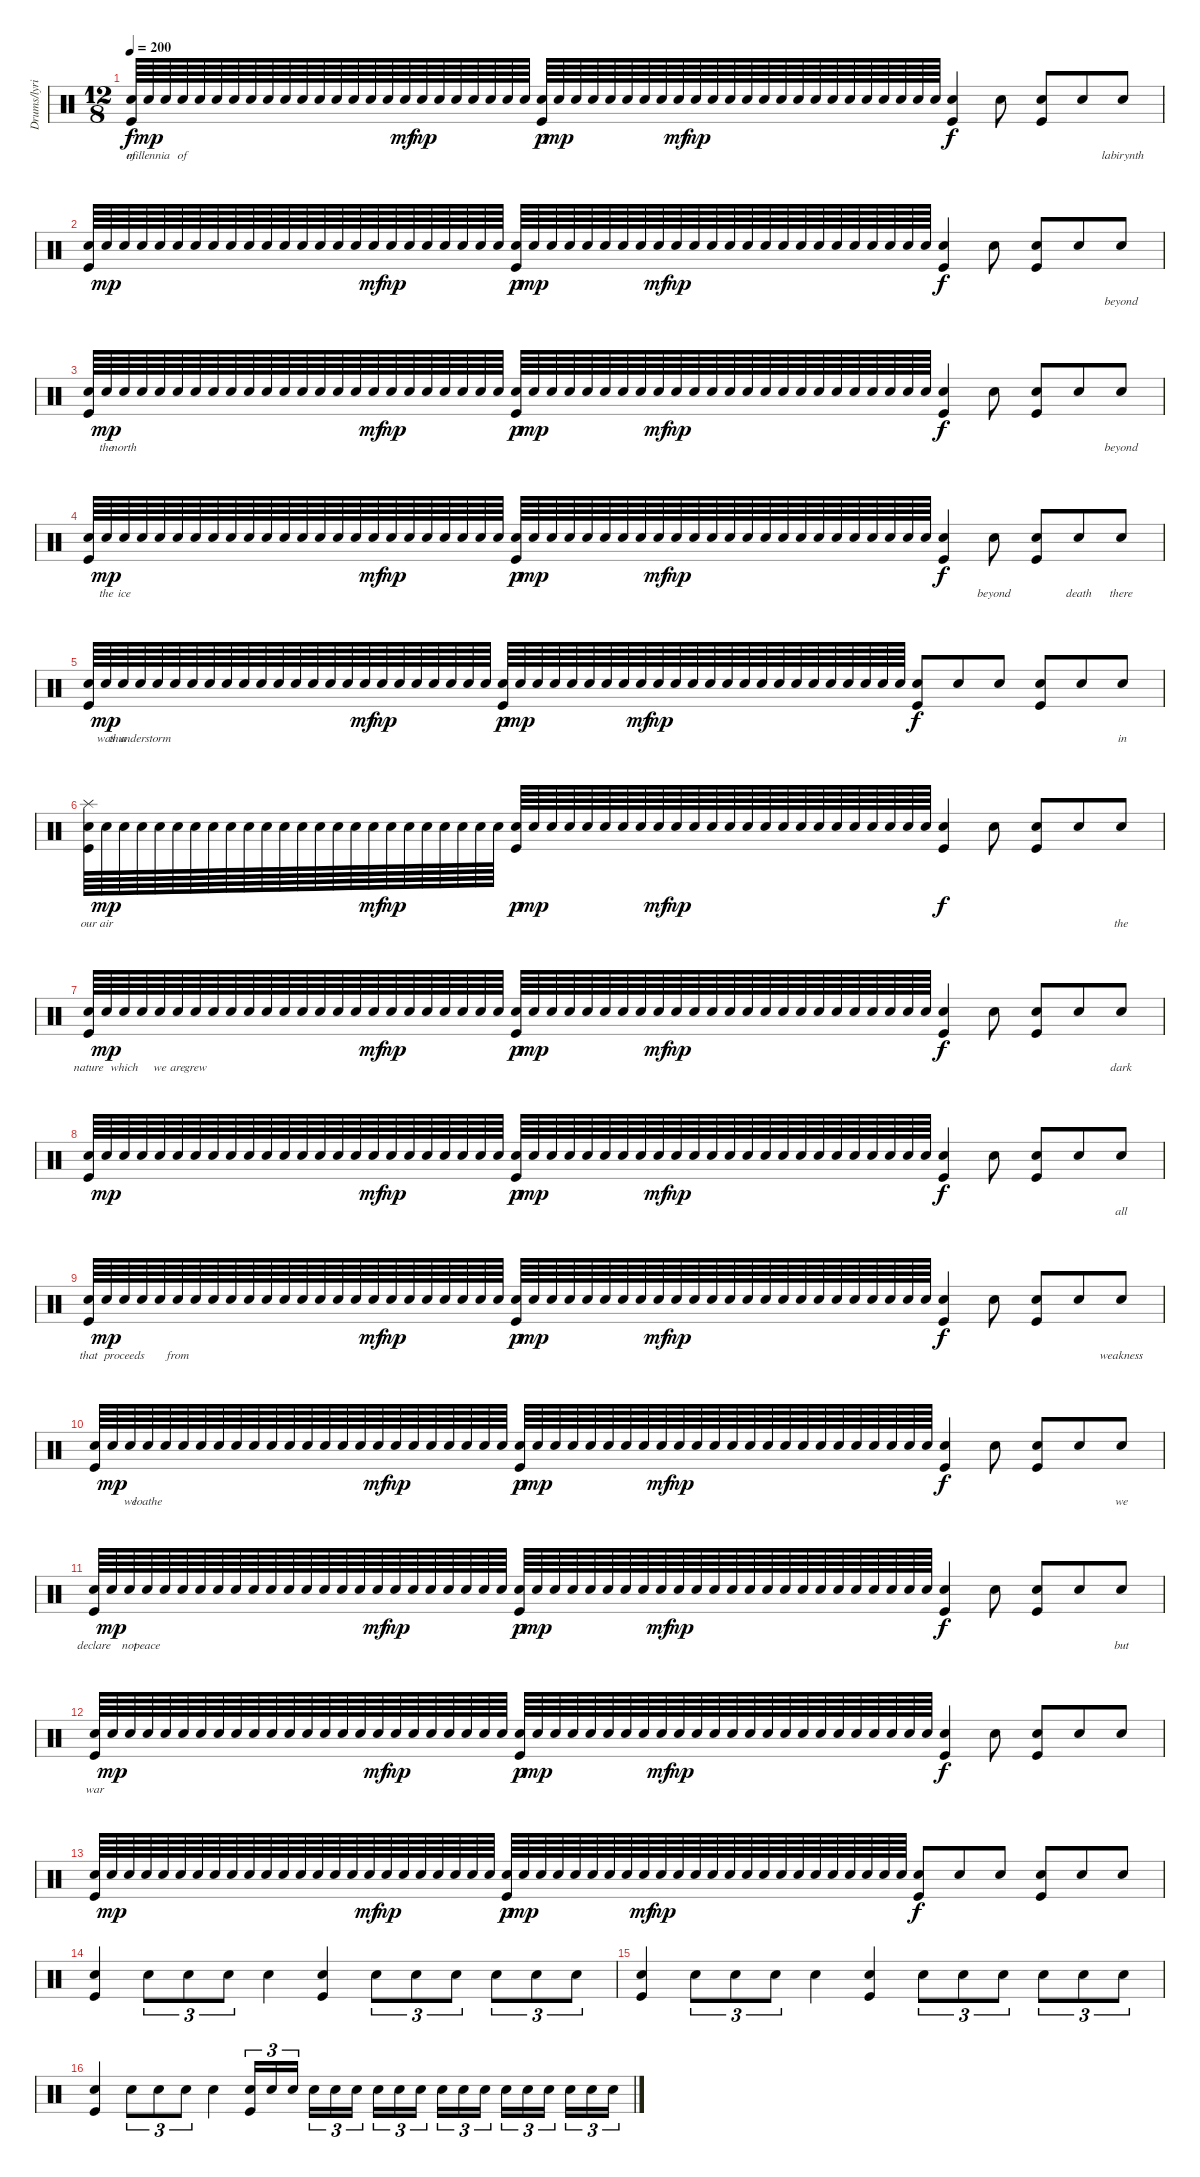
\track ("Drums/lyrics" "Drums/lyri") {instrument percussion}
\staff {score}
\articulation defaults
\ts (12 8)
\tempo 200
\clef neutral
\ks c
("Snare (hit) 2" "Kick (hit)").64{lyrics (0 "of") lyrics (1 "") lyrics (2 "") lyrics (3 "") lyrics (4 "") dy f} "Snare (hit) 2".64{lyrics (0 "millennia") lyrics (1 "") lyrics (2 "") lyrics (3 "") lyrics (4 "") dy mp} "Snare (hit) 2".64{lyrics (0 "") lyrics (1 "") lyrics (2 "") lyrics (3 "") lyrics (4 "")} "Snare (hit) 2".64{lyrics (0 "of") lyrics (1 "") lyrics (2 "") lyrics (3 "") lyrics (4 "")} "Snare (hit) 2".64{lyrics (0 "") lyrics (1 "") lyrics (2 "") lyrics (3 "") lyrics (4 "")} "Snare (hit) 2".64{lyrics (0 "") lyrics (1 "") lyrics (2 "") lyrics (3 "") lyrics (4 "")} "Snare (hit) 2".64{lyrics (0 "") lyrics (1 "") lyrics (2 "") lyrics (3 "") lyrics (4 "")} "Snare (hit) 2".64{lyrics (0 "") lyrics (1 "") lyrics (2 "") lyrics (3 "") lyrics (4 "")} "Snare (hit) 2".64{lyrics (0 "") lyrics (1 "") lyrics (2 "") lyrics (3 "") lyrics (4 "")} "Snare (hit) 2".64{lyrics (0 "") lyrics (1 "") lyrics (2 "") lyrics (3 "") lyrics (4 "")} "Snare (hit) 2".64{lyrics (0 "") lyrics (1 "") lyrics (2 "") lyrics (3 "") lyrics (4 "")} "Snare (hit) 2".64{lyrics (0 "") lyrics (1 "") lyrics (2 "") lyrics (3 "") lyrics (4 "")} "Snare (hit) 2".64{lyrics (0 "") lyrics (1 "") lyrics (2 "") lyrics (3 "") lyrics (4 "")} "Snare (hit) 2".64{lyrics (0 "") lyrics (1 "") lyrics (2 "") lyrics (3 "") lyrics (4 "")} "Snare (hit) 2".64{lyrics (0 "") lyrics (1 "") lyrics (2 "") lyrics (3 "") lyrics (4 "")} "Snare (hit) 2".64{lyrics (0 "") lyrics (1 "") lyrics (2 "") lyrics (3 "") lyrics (4 "")} "Snare (hit) 2".64{lyrics (0 "") lyrics (1 "") lyrics (2 "") lyrics (3 "") lyrics (4 "") dy mf} "Snare (hit) 2".64{lyrics (0 "") lyrics (1 "") lyrics (2 "") lyrics (3 "") lyrics (4 "") dy mp} "Snare (hit) 2".64{lyrics (0 "") lyrics (1 "") lyrics (2 "") lyrics (3 "") lyrics (4 "")} "Snare (hit) 2".64{lyrics (0 "") lyrics (1 "") lyrics (2 "") lyrics (3 "") lyrics (4 "")} "Snare (hit) 2".64{lyrics (0 "") lyrics (1 "") lyrics (2 "") lyrics (3 "") lyrics (4 "")} "Snare (hit) 2".64{lyrics (0 "") lyrics (1 "") lyrics (2 "") lyrics (3 "") lyrics (4 "")} "Snare (hit) 2".64{lyrics (0 "") lyrics (1 "") lyrics (2 "") lyrics (3 "") lyrics (4 "")} "Snare (hit) 2".64{lyrics (0 "") lyrics (1 "") lyrics (2 "") lyrics (3 "") lyrics (4 "")} ("Snare (hit) 2" "Kick (hit)").64{lyrics (0 "") lyrics (1 "") lyrics (2 "") lyrics (3 "") lyrics (4 "") dy p} "Snare (hit) 2".64{lyrics (0 "") lyrics (1 "") lyrics (2 "") lyrics (3 "") lyrics (4 "") dy mp} "Snare (hit) 2".64{lyrics (0 "") lyrics (1 "") lyrics (2 "") lyrics (3 "") lyrics (4 "")} "Snare (hit) 2".64{lyrics (0 "") lyrics (1 "") lyrics (2 "") lyrics (3 "") lyrics (4 "")} "Snare (hit) 2".64{lyrics (0 "") lyrics (1 "") lyrics (2 "") lyrics (3 "") lyrics (4 "")} "Snare (hit) 2".64{lyrics (0 "") lyrics (1 "") lyrics (2 "") lyrics (3 "") lyrics (4 "")} "Snare (hit) 2".64{lyrics (0 "") lyrics (1 "") lyrics (2 "") lyrics (3 "") lyrics (4 "")} "Snare (hit) 2".64{lyrics (0 "") lyrics (1 "") lyrics (2 "") lyrics (3 "") lyrics (4 "")} "Snare (hit) 2".64{lyrics (0 "") lyrics (1 "") lyrics (2 "") lyrics (3 "") lyrics (4 "") dy mf} "Snare (hit) 2".64{lyrics (0 "") lyrics (1 "") lyrics (2 "") lyrics (3 "") lyrics (4 "") dy mp} "Snare (hit) 2".64{lyrics (0 "") lyrics (1 "") lyrics (2 "") lyrics (3 "") lyrics (4 "")} "Snare (hit) 2".64{lyrics (0 "") lyrics (1 "") lyrics (2 "") lyrics (3 "") lyrics (4 "")} "Snare (hit) 2".64{lyrics (0 "") lyrics (1 "") lyrics (2 "") lyrics (3 "") lyrics (4 "")} "Snare (hit) 2".64{lyrics (0 "") lyrics (1 "") lyrics (2 "") lyrics (3 "") lyrics (4 "")} "Snare (hit) 2".64{lyrics (0 "") lyrics (1 "") lyrics (2 "") lyrics (3 "") lyrics (4 "")} "Snare (hit) 2".64{lyrics (0 "") lyrics (1 "") lyrics (2 "") lyrics (3 "") lyrics (4 "")} "Snare (hit) 2".64{lyrics (0 "") lyrics (1 "") lyrics (2 "") lyrics (3 "") lyrics (4 "")} "Snare (hit) 2".64{lyrics (0 "") lyrics (1 "") lyrics (2 "") lyrics (3 "") lyrics (4 "")} "Snare (hit) 2".64{lyrics (0 "") lyrics (1 "") lyrics (2 "") lyrics (3 "") lyrics (4 "")} "Snare (hit) 2".64{lyrics (0 "") lyrics (1 "") lyrics (2 "") lyrics (3 "") lyrics (4 "")} "Snare (hit) 2".64{lyrics (0 "") lyrics (1 "") lyrics (2 "") lyrics (3 "") lyrics (4 "")} "Snare (hit) 2".64{lyrics (0 "") lyrics (1 "") lyrics (2 "") lyrics (3 "") lyrics (4 "")} "Snare (hit) 2".64{lyrics (0 "") lyrics (1 "") lyrics (2 "") lyrics (3 "") lyrics (4 "")} "Snare (hit) 2".64{lyrics (0 "") lyrics (1 "") lyrics (2 "") lyrics (3 "") lyrics (4 "")} ("Snare (hit) 2" "Kick (hit)").4{lyrics (0 "") lyrics (1 "") lyrics (2 "") lyrics (3 "") lyrics (4 "") dy f} "Snare (hit) 2".8{lyrics (0 "") lyrics (1 "") lyrics (2 "") lyrics (3 "") lyrics (4 "")} ("Snare (hit) 2" "Kick (hit)").8{lyrics (0 "") lyrics (1 "") lyrics (2 "") lyrics (3 "") lyrics (4 "")} "Snare (hit) 2".8{lyrics (0 "") lyrics (1 "") lyrics (2 "") lyrics (3 "") lyrics (4 "")} "Snare (hit) 2".8{lyrics (0 "labirynth") lyrics (1 "") lyrics (2 "") lyrics (3 "") lyrics (4 "")} |
("Snare (hit) 2" "Kick (hit)").64{lyrics (0 "") lyrics (1 "") lyrics (2 "") lyrics (3 "") lyrics (4 "")} "Snare (hit) 2".64{lyrics (0 "") lyrics (1 "") lyrics (2 "") lyrics (3 "") lyrics (4 "") dy mp} "Snare (hit) 2".64{lyrics (0 "") lyrics (1 "") lyrics (2 "") lyrics (3 "") lyrics (4 "")} "Snare (hit) 2".64{lyrics (0 "") lyrics (1 "") lyrics (2 "") lyrics (3 "") lyrics (4 "")} "Snare (hit) 2".64{lyrics (0 "") lyrics (1 "") lyrics (2 "") lyrics (3 "") lyrics (4 "")} "Snare (hit) 2".64{lyrics (0 "") lyrics (1 "") lyrics (2 "") lyrics (3 "") lyrics (4 "")} "Snare (hit) 2".64{lyrics (0 "") lyrics (1 "") lyrics (2 "") lyrics (3 "") lyrics (4 "")} "Snare (hit) 2".64{lyrics (0 "") lyrics (1 "") lyrics (2 "") lyrics (3 "") lyrics (4 "")} "Snare (hit) 2".64{lyrics (0 "") lyrics (1 "") lyrics (2 "") lyrics (3 "") lyrics (4 "")} "Snare (hit) 2".64{lyrics (0 "") lyrics (1 "") lyrics (2 "") lyrics (3 "") lyrics (4 "")} "Snare (hit) 2".64{lyrics (0 "") lyrics (1 "") lyrics (2 "") lyrics (3 "") lyrics (4 "")} "Snare (hit) 2".64{lyrics (0 "") lyrics (1 "") lyrics (2 "") lyrics (3 "") lyrics (4 "")} "Snare (hit) 2".64{lyrics (0 "") lyrics (1 "") lyrics (2 "") lyrics (3 "") lyrics (4 "")} "Snare (hit) 2".64{lyrics (0 "") lyrics (1 "") lyrics (2 "") lyrics (3 "") lyrics (4 "")} "Snare (hit) 2".64{lyrics (0 "") lyrics (1 "") lyrics (2 "") lyrics (3 "") lyrics (4 "")} "Snare (hit) 2".64{lyrics (0 "") lyrics (1 "") lyrics (2 "") lyrics (3 "") lyrics (4 "")} "Snare (hit) 2".64{lyrics (0 "") lyrics (1 "") lyrics (2 "") lyrics (3 "") lyrics (4 "") dy mf} "Snare (hit) 2".64{lyrics (0 "") lyrics (1 "") lyrics (2 "") lyrics (3 "") lyrics (4 "") dy mp} "Snare (hit) 2".64{lyrics (0 "") lyrics (1 "") lyrics (2 "") lyrics (3 "") lyrics (4 "")} "Snare (hit) 2".64{lyrics (0 "") lyrics (1 "") lyrics (2 "") lyrics (3 "") lyrics (4 "")} "Snare (hit) 2".64{lyrics (0 "") lyrics (1 "") lyrics (2 "") lyrics (3 "") lyrics (4 "")} "Snare (hit) 2".64{lyrics (0 "") lyrics (1 "") lyrics (2 "") lyrics (3 "") lyrics (4 "")} "Snare (hit) 2".64{lyrics (0 "") lyrics (1 "") lyrics (2 "") lyrics (3 "") lyrics (4 "")} "Snare (hit) 2".64{lyrics (0 "") lyrics (1 "") lyrics (2 "") lyrics (3 "") lyrics (4 "")} ("Snare (hit) 2" "Kick (hit)").64{lyrics (0 "") lyrics (1 "") lyrics (2 "") lyrics (3 "") lyrics (4 "") dy p} "Snare (hit) 2".64{lyrics (0 "") lyrics (1 "") lyrics (2 "") lyrics (3 "") lyrics (4 "") dy mp} "Snare (hit) 2".64{lyrics (0 "") lyrics (1 "") lyrics (2 "") lyrics (3 "") lyrics (4 "")} "Snare (hit) 2".64{lyrics (0 "") lyrics (1 "") lyrics (2 "") lyrics (3 "") lyrics (4 "")} "Snare (hit) 2".64{lyrics (0 "") lyrics (1 "") lyrics (2 "") lyrics (3 "") lyrics (4 "")} "Snare (hit) 2".64{lyrics (0 "") lyrics (1 "") lyrics (2 "") lyrics (3 "") lyrics (4 "")} "Snare (hit) 2".64{lyrics (0 "") lyrics (1 "") lyrics (2 "") lyrics (3 "") lyrics (4 "")} "Snare (hit) 2".64{lyrics (0 "") lyrics (1 "") lyrics (2 "") lyrics (3 "") lyrics (4 "")} "Snare (hit) 2".64{lyrics (0 "") lyrics (1 "") lyrics (2 "") lyrics (3 "") lyrics (4 "") dy mf} "Snare (hit) 2".64{lyrics (0 "") lyrics (1 "") lyrics (2 "") lyrics (3 "") lyrics (4 "") dy mp} "Snare (hit) 2".64{lyrics (0 "") lyrics (1 "") lyrics (2 "") lyrics (3 "") lyrics (4 "")} "Snare (hit) 2".64{lyrics (0 "") lyrics (1 "") lyrics (2 "") lyrics (3 "") lyrics (4 "")} "Snare (hit) 2".64{lyrics (0 "") lyrics (1 "") lyrics (2 "") lyrics (3 "") lyrics (4 "")} "Snare (hit) 2".64{lyrics (0 "") lyrics (1 "") lyrics (2 "") lyrics (3 "") lyrics (4 "")} "Snare (hit) 2".64{lyrics (0 "") lyrics (1 "") lyrics (2 "") lyrics (3 "") lyrics (4 "")} "Snare (hit) 2".64{lyrics (0 "") lyrics (1 "") lyrics (2 "") lyrics (3 "") lyrics (4 "")} "Snare (hit) 2".64{lyrics (0 "") lyrics (1 "") lyrics (2 "") lyrics (3 "") lyrics (4 "")} "Snare (hit) 2".64{lyrics (0 "") lyrics (1 "") lyrics (2 "") lyrics (3 "") lyrics (4 "")} "Snare (hit) 2".64{lyrics (0 "") lyrics (1 "") lyrics (2 "") lyrics (3 "") lyrics (4 "")} "Snare (hit) 2".64{lyrics (0 "") lyrics (1 "") lyrics (2 "") lyrics (3 "") lyrics (4 "")} "Snare (hit) 2".64{lyrics (0 "") lyrics (1 "") lyrics (2 "") lyrics (3 "") lyrics (4 "")} "Snare (hit) 2".64{lyrics (0 "") lyrics (1 "") lyrics (2 "") lyrics (3 "") lyrics (4 "")} "Snare (hit) 2".64{lyrics (0 "") lyrics (1 "") lyrics (2 "") lyrics (3 "") lyrics (4 "")} "Snare (hit) 2".64{lyrics (0 "") lyrics (1 "") lyrics (2 "") lyrics (3 "") lyrics (4 "")} ("Snare (hit) 2" "Kick (hit)").4{lyrics (0 "") lyrics (1 "") lyrics (2 "") lyrics (3 "") lyrics (4 "") dy f} "Snare (hit) 2".8{lyrics (0 "") lyrics (1 "") lyrics (2 "") lyrics (3 "") lyrics (4 "")} ("Snare (hit) 2" "Kick (hit)").8{lyrics (0 "") lyrics (1 "") lyrics (2 "") lyrics (3 "") lyrics (4 "")} "Snare (hit) 2".8{lyrics (0 "") lyrics (1 "") lyrics (2 "") lyrics (3 "") lyrics (4 "")} "Snare (hit) 2".8{lyrics (0 "beyond") lyrics (1 "") lyrics (2 "") lyrics (3 "") lyrics (4 "")} |
("Snare (hit) 2" "Kick (hit)").64{lyrics (0 "") lyrics (1 "") lyrics (2 "") lyrics (3 "") lyrics (4 "")} "Snare (hit) 2".64{lyrics (0 "the") lyrics (1 "") lyrics (2 "") lyrics (3 "") lyrics (4 "") dy mp} "Snare (hit) 2".64{lyrics (0 "north") lyrics (1 "") lyrics (2 "") lyrics (3 "") lyrics (4 "")} "Snare (hit) 2".64{lyrics (0 "") lyrics (1 "") lyrics (2 "") lyrics (3 "") lyrics (4 "")} "Snare (hit) 2".64{lyrics (0 "") lyrics (1 "") lyrics (2 "") lyrics (3 "") lyrics (4 "")} "Snare (hit) 2".64{lyrics (0 "") lyrics (1 "") lyrics (2 "") lyrics (3 "") lyrics (4 "")} "Snare (hit) 2".64{lyrics (0 "") lyrics (1 "") lyrics (2 "") lyrics (3 "") lyrics (4 "")} "Snare (hit) 2".64{lyrics (0 "") lyrics (1 "") lyrics (2 "") lyrics (3 "") lyrics (4 "")} "Snare (hit) 2".64{lyrics (0 "") lyrics (1 "") lyrics (2 "") lyrics (3 "") lyrics (4 "")} "Snare (hit) 2".64{lyrics (0 "") lyrics (1 "") lyrics (2 "") lyrics (3 "") lyrics (4 "")} "Snare (hit) 2".64{lyrics (0 "") lyrics (1 "") lyrics (2 "") lyrics (3 "") lyrics (4 "")} "Snare (hit) 2".64{lyrics (0 "") lyrics (1 "") lyrics (2 "") lyrics (3 "") lyrics (4 "")} "Snare (hit) 2".64{lyrics (0 "") lyrics (1 "") lyrics (2 "") lyrics (3 "") lyrics (4 "")} "Snare (hit) 2".64{lyrics (0 "") lyrics (1 "") lyrics (2 "") lyrics (3 "") lyrics (4 "")} "Snare (hit) 2".64{lyrics (0 "") lyrics (1 "") lyrics (2 "") lyrics (3 "") lyrics (4 "")} "Snare (hit) 2".64{lyrics (0 "") lyrics (1 "") lyrics (2 "") lyrics (3 "") lyrics (4 "")} "Snare (hit) 2".64{lyrics (0 "") lyrics (1 "") lyrics (2 "") lyrics (3 "") lyrics (4 "") dy mf} "Snare (hit) 2".64{lyrics (0 "") lyrics (1 "") lyrics (2 "") lyrics (3 "") lyrics (4 "") dy mp} "Snare (hit) 2".64{lyrics (0 "") lyrics (1 "") lyrics (2 "") lyrics (3 "") lyrics (4 "")} "Snare (hit) 2".64{lyrics (0 "") lyrics (1 "") lyrics (2 "") lyrics (3 "") lyrics (4 "")} "Snare (hit) 2".64{lyrics (0 "") lyrics (1 "") lyrics (2 "") lyrics (3 "") lyrics (4 "")} "Snare (hit) 2".64{lyrics (0 "") lyrics (1 "") lyrics (2 "") lyrics (3 "") lyrics (4 "")} "Snare (hit) 2".64{lyrics (0 "") lyrics (1 "") lyrics (2 "") lyrics (3 "") lyrics (4 "")} "Snare (hit) 2".64{lyrics (0 "") lyrics (1 "") lyrics (2 "") lyrics (3 "") lyrics (4 "")} ("Snare (hit) 2" "Kick (hit)").64{lyrics (0 "") lyrics (1 "") lyrics (2 "") lyrics (3 "") lyrics (4 "") dy p} "Snare (hit) 2".64{lyrics (0 "") lyrics (1 "") lyrics (2 "") lyrics (3 "") lyrics (4 "") dy mp} "Snare (hit) 2".64{lyrics (0 "") lyrics (1 "") lyrics (2 "") lyrics (3 "") lyrics (4 "")} "Snare (hit) 2".64{lyrics (0 "") lyrics (1 "") lyrics (2 "") lyrics (3 "") lyrics (4 "")} "Snare (hit) 2".64{lyrics (0 "") lyrics (1 "") lyrics (2 "") lyrics (3 "") lyrics (4 "")} "Snare (hit) 2".64{lyrics (0 "") lyrics (1 "") lyrics (2 "") lyrics (3 "") lyrics (4 "")} "Snare (hit) 2".64{lyrics (0 "") lyrics (1 "") lyrics (2 "") lyrics (3 "") lyrics (4 "")} "Snare (hit) 2".64{lyrics (0 "") lyrics (1 "") lyrics (2 "") lyrics (3 "") lyrics (4 "")} "Snare (hit) 2".64{lyrics (0 "") lyrics (1 "") lyrics (2 "") lyrics (3 "") lyrics (4 "") dy mf} "Snare (hit) 2".64{lyrics (0 "") lyrics (1 "") lyrics (2 "") lyrics (3 "") lyrics (4 "") dy mp} "Snare (hit) 2".64{lyrics (0 "") lyrics (1 "") lyrics (2 "") lyrics (3 "") lyrics (4 "")} "Snare (hit) 2".64{lyrics (0 "") lyrics (1 "") lyrics (2 "") lyrics (3 "") lyrics (4 "")} "Snare (hit) 2".64{lyrics (0 "") lyrics (1 "") lyrics (2 "") lyrics (3 "") lyrics (4 "")} "Snare (hit) 2".64{lyrics (0 "") lyrics (1 "") lyrics (2 "") lyrics (3 "") lyrics (4 "")} "Snare (hit) 2".64{lyrics (0 "") lyrics (1 "") lyrics (2 "") lyrics (3 "") lyrics (4 "")} "Snare (hit) 2".64{lyrics (0 "") lyrics (1 "") lyrics (2 "") lyrics (3 "") lyrics (4 "")} "Snare (hit) 2".64{lyrics (0 "") lyrics (1 "") lyrics (2 "") lyrics (3 "") lyrics (4 "")} "Snare (hit) 2".64{lyrics (0 "") lyrics (1 "") lyrics (2 "") lyrics (3 "") lyrics (4 "")} "Snare (hit) 2".64{lyrics (0 "") lyrics (1 "") lyrics (2 "") lyrics (3 "") lyrics (4 "")} "Snare (hit) 2".64{lyrics (0 "") lyrics (1 "") lyrics (2 "") lyrics (3 "") lyrics (4 "")} "Snare (hit) 2".64{lyrics (0 "") lyrics (1 "") lyrics (2 "") lyrics (3 "") lyrics (4 "")} "Snare (hit) 2".64{lyrics (0 "") lyrics (1 "") lyrics (2 "") lyrics (3 "") lyrics (4 "")} "Snare (hit) 2".64{lyrics (0 "") lyrics (1 "") lyrics (2 "") lyrics (3 "") lyrics (4 "")} "Snare (hit) 2".64{lyrics (0 "") lyrics (1 "") lyrics (2 "") lyrics (3 "") lyrics (4 "")} ("Snare (hit) 2" "Kick (hit)").4{lyrics (0 "") lyrics (1 "") lyrics (2 "") lyrics (3 "") lyrics (4 "") dy f} "Snare (hit) 2".8{lyrics (0 "") lyrics (1 "") lyrics (2 "") lyrics (3 "") lyrics (4 "")} ("Snare (hit) 2" "Kick (hit)").8{lyrics (0 "") lyrics (1 "") lyrics (2 "") lyrics (3 "") lyrics (4 "")} "Snare (hit) 2".8{lyrics (0 "") lyrics (1 "") lyrics (2 "") lyrics (3 "") lyrics (4 "")} "Snare (hit) 2".8{lyrics (0 "beyond") lyrics (1 "") lyrics (2 "") lyrics (3 "") lyrics (4 "")} |
("Snare (hit) 2" "Kick (hit)").64{lyrics (0 "") lyrics (1 "") lyrics (2 "") lyrics (3 "") lyrics (4 "")} "Snare (hit) 2".64{lyrics (0 "the") lyrics (1 "") lyrics (2 "") lyrics (3 "") lyrics (4 "") dy mp} "Snare (hit) 2".64{lyrics (0 "ice") lyrics (1 "") lyrics (2 "") lyrics (3 "") lyrics (4 "")} "Snare (hit) 2".64{lyrics (0 "") lyrics (1 "") lyrics (2 "") lyrics (3 "") lyrics (4 "")} "Snare (hit) 2".64{lyrics (0 "") lyrics (1 "") lyrics (2 "") lyrics (3 "") lyrics (4 "")} "Snare (hit) 2".64{lyrics (0 "") lyrics (1 "") lyrics (2 "") lyrics (3 "") lyrics (4 "")} "Snare (hit) 2".64{lyrics (0 "") lyrics (1 "") lyrics (2 "") lyrics (3 "") lyrics (4 "")} "Snare (hit) 2".64{lyrics (0 "") lyrics (1 "") lyrics (2 "") lyrics (3 "") lyrics (4 "")} "Snare (hit) 2".64{lyrics (0 "") lyrics (1 "") lyrics (2 "") lyrics (3 "") lyrics (4 "")} "Snare (hit) 2".64{lyrics (0 "") lyrics (1 "") lyrics (2 "") lyrics (3 "") lyrics (4 "")} "Snare (hit) 2".64{lyrics (0 "") lyrics (1 "") lyrics (2 "") lyrics (3 "") lyrics (4 "")} "Snare (hit) 2".64{lyrics (0 "") lyrics (1 "") lyrics (2 "") lyrics (3 "") lyrics (4 "")} "Snare (hit) 2".64{lyrics (0 "") lyrics (1 "") lyrics (2 "") lyrics (3 "") lyrics (4 "")} "Snare (hit) 2".64{lyrics (0 "") lyrics (1 "") lyrics (2 "") lyrics (3 "") lyrics (4 "")} "Snare (hit) 2".64{lyrics (0 "") lyrics (1 "") lyrics (2 "") lyrics (3 "") lyrics (4 "")} "Snare (hit) 2".64{lyrics (0 "") lyrics (1 "") lyrics (2 "") lyrics (3 "") lyrics (4 "")} "Snare (hit) 2".64{lyrics (0 "") lyrics (1 "") lyrics (2 "") lyrics (3 "") lyrics (4 "") dy mf} "Snare (hit) 2".64{lyrics (0 "") lyrics (1 "") lyrics (2 "") lyrics (3 "") lyrics (4 "") dy mp} "Snare (hit) 2".64{lyrics (0 "") lyrics (1 "") lyrics (2 "") lyrics (3 "") lyrics (4 "")} "Snare (hit) 2".64{lyrics (0 "") lyrics (1 "") lyrics (2 "") lyrics (3 "") lyrics (4 "")} "Snare (hit) 2".64{lyrics (0 "") lyrics (1 "") lyrics (2 "") lyrics (3 "") lyrics (4 "")} "Snare (hit) 2".64{lyrics (0 "") lyrics (1 "") lyrics (2 "") lyrics (3 "") lyrics (4 "")} "Snare (hit) 2".64{lyrics (0 "") lyrics (1 "") lyrics (2 "") lyrics (3 "") lyrics (4 "")} "Snare (hit) 2".64{lyrics (0 "") lyrics (1 "") lyrics (2 "") lyrics (3 "") lyrics (4 "")} ("Snare (hit) 2" "Kick (hit)").64{lyrics (0 "") lyrics (1 "") lyrics (2 "") lyrics (3 "") lyrics (4 "") dy p} "Snare (hit) 2".64{lyrics (0 "") lyrics (1 "") lyrics (2 "") lyrics (3 "") lyrics (4 "") dy mp} "Snare (hit) 2".64{lyrics (0 "") lyrics (1 "") lyrics (2 "") lyrics (3 "") lyrics (4 "")} "Snare (hit) 2".64{lyrics (0 "") lyrics (1 "") lyrics (2 "") lyrics (3 "") lyrics (4 "")} "Snare (hit) 2".64{lyrics (0 "") lyrics (1 "") lyrics (2 "") lyrics (3 "") lyrics (4 "")} "Snare (hit) 2".64{lyrics (0 "") lyrics (1 "") lyrics (2 "") lyrics (3 "") lyrics (4 "")} "Snare (hit) 2".64{lyrics (0 "") lyrics (1 "") lyrics (2 "") lyrics (3 "") lyrics (4 "")} "Snare (hit) 2".64{lyrics (0 "") lyrics (1 "") lyrics (2 "") lyrics (3 "") lyrics (4 "")} "Snare (hit) 2".64{lyrics (0 "") lyrics (1 "") lyrics (2 "") lyrics (3 "") lyrics (4 "") dy mf} "Snare (hit) 2".64{lyrics (0 "") lyrics (1 "") lyrics (2 "") lyrics (3 "") lyrics (4 "") dy mp} "Snare (hit) 2".64{lyrics (0 "") lyrics (1 "") lyrics (2 "") lyrics (3 "") lyrics (4 "")} "Snare (hit) 2".64{lyrics (0 "") lyrics (1 "") lyrics (2 "") lyrics (3 "") lyrics (4 "")} "Snare (hit) 2".64{lyrics (0 "") lyrics (1 "") lyrics (2 "") lyrics (3 "") lyrics (4 "")} "Snare (hit) 2".64{lyrics (0 "") lyrics (1 "") lyrics (2 "") lyrics (3 "") lyrics (4 "")} "Snare (hit) 2".64{lyrics (0 "") lyrics (1 "") lyrics (2 "") lyrics (3 "") lyrics (4 "")} "Snare (hit) 2".64{lyrics (0 "") lyrics (1 "") lyrics (2 "") lyrics (3 "") lyrics (4 "")} "Snare (hit) 2".64{lyrics (0 "") lyrics (1 "") lyrics (2 "") lyrics (3 "") lyrics (4 "")} "Snare (hit) 2".64{lyrics (0 "") lyrics (1 "") lyrics (2 "") lyrics (3 "") lyrics (4 "")} "Snare (hit) 2".64{lyrics (0 "") lyrics (1 "") lyrics (2 "") lyrics (3 "") lyrics (4 "")} "Snare (hit) 2".64{lyrics (0 "") lyrics (1 "") lyrics (2 "") lyrics (3 "") lyrics (4 "")} "Snare (hit) 2".64{lyrics (0 "") lyrics (1 "") lyrics (2 "") lyrics (3 "") lyrics (4 "")} "Snare (hit) 2".64{lyrics (0 "") lyrics (1 "") lyrics (2 "") lyrics (3 "") lyrics (4 "")} "Snare (hit) 2".64{lyrics (0 "") lyrics (1 "") lyrics (2 "") lyrics (3 "") lyrics (4 "")} "Snare (hit) 2".64{lyrics (0 "") lyrics (1 "") lyrics (2 "") lyrics (3 "") lyrics (4 "")} ("Snare (hit) 2" "Kick (hit)").4{lyrics (0 "") lyrics (1 "") lyrics (2 "") lyrics (3 "") lyrics (4 "") dy f} "Snare (hit) 2".8{lyrics (0 "beyond") lyrics (1 "") lyrics (2 "") lyrics (3 "") lyrics (4 "")} ("Snare (hit) 2" "Kick (hit)").8{lyrics (0 "") lyrics (1 "") lyrics (2 "") lyrics (3 "") lyrics (4 "")} "Snare (hit) 2".8{lyrics (0 "death") lyrics (1 "") lyrics (2 "") lyrics (3 "") lyrics (4 "")} "Snare (hit) 2".8{lyrics (0 "there") lyrics (1 "") lyrics (2 "") lyrics (3 "") lyrics (4 "")} |
("Snare (hit) 2" "Kick (hit)").64{lyrics (0 "") lyrics (1 "") lyrics (2 "") lyrics (3 "") lyrics (4 "")} "Snare (hit) 2".64{lyrics (0 "was") lyrics (1 "") lyrics (2 "") lyrics (3 "") lyrics (4 "") dy mp} "Snare (hit) 2".64{lyrics (0 "a") lyrics (1 "") lyrics (2 "") lyrics (3 "") lyrics (4 "")} "Snare (hit) 2".64{lyrics (0 "thunderstorm") lyrics (1 "") lyrics (2 "") lyrics (3 "") lyrics (4 "")} "Snare (hit) 2".64{lyrics (0 "") lyrics (1 "") lyrics (2 "") lyrics (3 "") lyrics (4 "")} "Snare (hit) 2".64{lyrics (0 "") lyrics (1 "") lyrics (2 "") lyrics (3 "") lyrics (4 "")} "Snare (hit) 2".64{lyrics (0 "") lyrics (1 "") lyrics (2 "") lyrics (3 "") lyrics (4 "")} "Snare (hit) 2".64{lyrics (0 "") lyrics (1 "") lyrics (2 "") lyrics (3 "") lyrics (4 "")} "Snare (hit) 2".64{lyrics (0 "") lyrics (1 "") lyrics (2 "") lyrics (3 "") lyrics (4 "")} "Snare (hit) 2".64{lyrics (0 "") lyrics (1 "") lyrics (2 "") lyrics (3 "") lyrics (4 "")} "Snare (hit) 2".64{lyrics (0 "") lyrics (1 "") lyrics (2 "") lyrics (3 "") lyrics (4 "")} "Snare (hit) 2".64{lyrics (0 "") lyrics (1 "") lyrics (2 "") lyrics (3 "") lyrics (4 "")} "Snare (hit) 2".64{lyrics (0 "") lyrics (1 "") lyrics (2 "") lyrics (3 "") lyrics (4 "")} "Snare (hit) 2".64{lyrics (0 "") lyrics (1 "") lyrics (2 "") lyrics (3 "") lyrics (4 "")} "Snare (hit) 2".64{lyrics (0 "") lyrics (1 "") lyrics (2 "") lyrics (3 "") lyrics (4 "")} "Snare (hit) 2".64{lyrics (0 "") lyrics (1 "") lyrics (2 "") lyrics (3 "") lyrics (4 "")} "Snare (hit) 2".64{lyrics (0 "") lyrics (1 "") lyrics (2 "") lyrics (3 "") lyrics (4 "") dy mf} "Snare (hit) 2".64{lyrics (0 "") lyrics (1 "") lyrics (2 "") lyrics (3 "") lyrics (4 "") dy mp} "Snare (hit) 2".64{lyrics (0 "") lyrics (1 "") lyrics (2 "") lyrics (3 "") lyrics (4 "")} "Snare (hit) 2".64{lyrics (0 "") lyrics (1 "") lyrics (2 "") lyrics (3 "") lyrics (4 "")} "Snare (hit) 2".64{lyrics (0 "") lyrics (1 "") lyrics (2 "") lyrics (3 "") lyrics (4 "")} "Snare (hit) 2".64{lyrics (0 "") lyrics (1 "") lyrics (2 "") lyrics (3 "") lyrics (4 "")} "Snare (hit) 2".64{lyrics (0 "") lyrics (1 "") lyrics (2 "") lyrics (3 "") lyrics (4 "")} "Snare (hit) 2".64{lyrics (0 "") lyrics (1 "") lyrics (2 "") lyrics (3 "") lyrics (4 "")} ("Snare (hit) 2" "Kick (hit)").64{lyrics (0 "") lyrics (1 "") lyrics (2 "") lyrics (3 "") lyrics (4 "") dy p} "Snare (hit) 2".64{lyrics (0 "") lyrics (1 "") lyrics (2 "") lyrics (3 "") lyrics (4 "") dy mp} "Snare (hit) 2".64{lyrics (0 "") lyrics (1 "") lyrics (2 "") lyrics (3 "") lyrics (4 "")} "Snare (hit) 2".64{lyrics (0 "") lyrics (1 "") lyrics (2 "") lyrics (3 "") lyrics (4 "")} "Snare (hit) 2".64{lyrics (0 "") lyrics (1 "") lyrics (2 "") lyrics (3 "") lyrics (4 "")} "Snare (hit) 2".64{lyrics (0 "") lyrics (1 "") lyrics (2 "") lyrics (3 "") lyrics (4 "")} "Snare (hit) 2".64{lyrics (0 "") lyrics (1 "") lyrics (2 "") lyrics (3 "") lyrics (4 "")} "Snare (hit) 2".64{lyrics (0 "") lyrics (1 "") lyrics (2 "") lyrics (3 "") lyrics (4 "")} "Snare (hit) 2".64{lyrics (0 "") lyrics (1 "") lyrics (2 "") lyrics (3 "") lyrics (4 "") dy mf} "Snare (hit) 2".64{lyrics (0 "") lyrics (1 "") lyrics (2 "") lyrics (3 "") lyrics (4 "") dy mp} "Snare (hit) 2".64{lyrics (0 "") lyrics (1 "") lyrics (2 "") lyrics (3 "") lyrics (4 "")} "Snare (hit) 2".64{lyrics (0 "") lyrics (1 "") lyrics (2 "") lyrics (3 "") lyrics (4 "")} "Snare (hit) 2".64{lyrics (0 "") lyrics (1 "") lyrics (2 "") lyrics (3 "") lyrics (4 "")} "Snare (hit) 2".64{lyrics (0 "") lyrics (1 "") lyrics (2 "") lyrics (3 "") lyrics (4 "")} "Snare (hit) 2".64{lyrics (0 "") lyrics (1 "") lyrics (2 "") lyrics (3 "") lyrics (4 "")} "Snare (hit) 2".64{lyrics (0 "") lyrics (1 "") lyrics (2 "") lyrics (3 "") lyrics (4 "")} "Snare (hit) 2".64{lyrics (0 "") lyrics (1 "") lyrics (2 "") lyrics (3 "") lyrics (4 "")} "Snare (hit) 2".64{lyrics (0 "") lyrics (1 "") lyrics (2 "") lyrics (3 "") lyrics (4 "")} "Snare (hit) 2".64{lyrics (0 "") lyrics (1 "") lyrics (2 "") lyrics (3 "") lyrics (4 "")} "Snare (hit) 2".64{lyrics (0 "") lyrics (1 "") lyrics (2 "") lyrics (3 "") lyrics (4 "")} "Snare (hit) 2".64{lyrics (0 "") lyrics (1 "") lyrics (2 "") lyrics (3 "") lyrics (4 "")} "Snare (hit) 2".64{lyrics (0 "") lyrics (1 "") lyrics (2 "") lyrics (3 "") lyrics (4 "")} "Snare (hit) 2".64{lyrics (0 "") lyrics (1 "") lyrics (2 "") lyrics (3 "") lyrics (4 "")} "Snare (hit) 2".64{lyrics (0 "") lyrics (1 "") lyrics (2 "") lyrics (3 "") lyrics (4 "")} ("Snare (hit) 2" "Kick (hit)").8{lyrics (0 "") lyrics (1 "") lyrics (2 "") lyrics (3 "") lyrics (4 "") dy f} "Snare (hit) 2".8{lyrics (0 "") lyrics (1 "") lyrics (2 "") lyrics (3 "") lyrics (4 "")} "Snare (hit) 2".8{lyrics (0 "") lyrics (1 "") lyrics (2 "") lyrics (3 "") lyrics (4 "")} ("Snare (hit) 2" "Kick (hit)").8{lyrics (0 "") lyrics (1 "") lyrics (2 "") lyrics (3 "") lyrics (4 "")} "Snare (hit) 2".8{lyrics (0 "") lyrics (1 "") lyrics (2 "") lyrics (3 "") lyrics (4 "")} "Snare (hit) 2".8{lyrics (0 "in") lyrics (1 "") lyrics (2 "") lyrics (3 "") lyrics (4 "")} |
("Splash (hit)" "Snare (hit) 2" "Kick (hit)").64{lyrics (0 "our") lyrics (1 "") lyrics (2 "") lyrics (3 "") lyrics (4 "")} "Snare (hit) 2".64{lyrics (0 "air") lyrics (1 "") lyrics (2 "") lyrics (3 "") lyrics (4 "") dy mp} "Snare (hit) 2".64{lyrics (0 "") lyrics (1 "") lyrics (2 "") lyrics (3 "") lyrics (4 "")} "Snare (hit) 2".64{lyrics (0 "") lyrics (1 "") lyrics (2 "") lyrics (3 "") lyrics (4 "")} "Snare (hit) 2".64{lyrics (0 "") lyrics (1 "") lyrics (2 "") lyrics (3 "") lyrics (4 "")} "Snare (hit) 2".64{lyrics (0 "") lyrics (1 "") lyrics (2 "") lyrics (3 "") lyrics (4 "")} "Snare (hit) 2".64{lyrics (0 "") lyrics (1 "") lyrics (2 "") lyrics (3 "") lyrics (4 "")} "Snare (hit) 2".64{lyrics (0 "") lyrics (1 "") lyrics (2 "") lyrics (3 "") lyrics (4 "")} "Snare (hit) 2".64{lyrics (0 "") lyrics (1 "") lyrics (2 "") lyrics (3 "") lyrics (4 "")} "Snare (hit) 2".64{lyrics (0 "") lyrics (1 "") lyrics (2 "") lyrics (3 "") lyrics (4 "")} "Snare (hit) 2".64{lyrics (0 "") lyrics (1 "") lyrics (2 "") lyrics (3 "") lyrics (4 "")} "Snare (hit) 2".64{lyrics (0 "") lyrics (1 "") lyrics (2 "") lyrics (3 "") lyrics (4 "")} "Snare (hit) 2".64{lyrics (0 "") lyrics (1 "") lyrics (2 "") lyrics (3 "") lyrics (4 "")} "Snare (hit) 2".64{lyrics (0 "") lyrics (1 "") lyrics (2 "") lyrics (3 "") lyrics (4 "")} "Snare (hit) 2".64{lyrics (0 "") lyrics (1 "") lyrics (2 "") lyrics (3 "") lyrics (4 "")} "Snare (hit) 2".64{lyrics (0 "") lyrics (1 "") lyrics (2 "") lyrics (3 "") lyrics (4 "")} "Snare (hit) 2".64{lyrics (0 "") lyrics (1 "") lyrics (2 "") lyrics (3 "") lyrics (4 "") dy mf} "Snare (hit) 2".64{lyrics (0 "") lyrics (1 "") lyrics (2 "") lyrics (3 "") lyrics (4 "") dy mp} "Snare (hit) 2".64{lyrics (0 "") lyrics (1 "") lyrics (2 "") lyrics (3 "") lyrics (4 "")} "Snare (hit) 2".64{lyrics (0 "") lyrics (1 "") lyrics (2 "") lyrics (3 "") lyrics (4 "")} "Snare (hit) 2".64{lyrics (0 "") lyrics (1 "") lyrics (2 "") lyrics (3 "") lyrics (4 "")} "Snare (hit) 2".64{lyrics (0 "") lyrics (1 "") lyrics (2 "") lyrics (3 "") lyrics (4 "")} "Snare (hit) 2".64{lyrics (0 "") lyrics (1 "") lyrics (2 "") lyrics (3 "") lyrics (4 "")} "Snare (hit) 2".64{lyrics (0 "") lyrics (1 "") lyrics (2 "") lyrics (3 "") lyrics (4 "")} ("Snare (hit) 2" "Kick (hit)").64{lyrics (0 "") lyrics (1 "") lyrics (2 "") lyrics (3 "") lyrics (4 "") dy p} "Snare (hit) 2".64{lyrics (0 "") lyrics (1 "") lyrics (2 "") lyrics (3 "") lyrics (4 "") dy mp} "Snare (hit) 2".64{lyrics (0 "") lyrics (1 "") lyrics (2 "") lyrics (3 "") lyrics (4 "")} "Snare (hit) 2".64{lyrics (0 "") lyrics (1 "") lyrics (2 "") lyrics (3 "") lyrics (4 "")} "Snare (hit) 2".64{lyrics (0 "") lyrics (1 "") lyrics (2 "") lyrics (3 "") lyrics (4 "")} "Snare (hit) 2".64{lyrics (0 "") lyrics (1 "") lyrics (2 "") lyrics (3 "") lyrics (4 "")} "Snare (hit) 2".64{lyrics (0 "") lyrics (1 "") lyrics (2 "") lyrics (3 "") lyrics (4 "")} "Snare (hit) 2".64{lyrics (0 "") lyrics (1 "") lyrics (2 "") lyrics (3 "") lyrics (4 "")} "Snare (hit) 2".64{lyrics (0 "") lyrics (1 "") lyrics (2 "") lyrics (3 "") lyrics (4 "") dy mf} "Snare (hit) 2".64{lyrics (0 "") lyrics (1 "") lyrics (2 "") lyrics (3 "") lyrics (4 "") dy mp} "Snare (hit) 2".64{lyrics (0 "") lyrics (1 "") lyrics (2 "") lyrics (3 "") lyrics (4 "")} "Snare (hit) 2".64{lyrics (0 "") lyrics (1 "") lyrics (2 "") lyrics (3 "") lyrics (4 "")} "Snare (hit) 2".64{lyrics (0 "") lyrics (1 "") lyrics (2 "") lyrics (3 "") lyrics (4 "")} "Snare (hit) 2".64{lyrics (0 "") lyrics (1 "") lyrics (2 "") lyrics (3 "") lyrics (4 "")} "Snare (hit) 2".64{lyrics (0 "") lyrics (1 "") lyrics (2 "") lyrics (3 "") lyrics (4 "")} "Snare (hit) 2".64{lyrics (0 "") lyrics (1 "") lyrics (2 "") lyrics (3 "") lyrics (4 "")} "Snare (hit) 2".64{lyrics (0 "") lyrics (1 "") lyrics (2 "") lyrics (3 "") lyrics (4 "")} "Snare (hit) 2".64{lyrics (0 "") lyrics (1 "") lyrics (2 "") lyrics (3 "") lyrics (4 "")} "Snare (hit) 2".64{lyrics (0 "") lyrics (1 "") lyrics (2 "") lyrics (3 "") lyrics (4 "")} "Snare (hit) 2".64{lyrics (0 "") lyrics (1 "") lyrics (2 "") lyrics (3 "") lyrics (4 "")} "Snare (hit) 2".64{lyrics (0 "") lyrics (1 "") lyrics (2 "") lyrics (3 "") lyrics (4 "")} "Snare (hit) 2".64{lyrics (0 "") lyrics (1 "") lyrics (2 "") lyrics (3 "") lyrics (4 "")} "Snare (hit) 2".64{lyrics (0 "") lyrics (1 "") lyrics (2 "") lyrics (3 "") lyrics (4 "")} "Snare (hit) 2".64{lyrics (0 "") lyrics (1 "") lyrics (2 "") lyrics (3 "") lyrics (4 "")} ("Snare (hit) 2" "Kick (hit)").4{lyrics (0 "") lyrics (1 "") lyrics (2 "") lyrics (3 "") lyrics (4 "") dy f} "Snare (hit) 2".8{lyrics (0 "") lyrics (1 "") lyrics (2 "") lyrics (3 "") lyrics (4 "")} ("Snare (hit) 2" "Kick (hit)").8{lyrics (0 "") lyrics (1 "") lyrics (2 "") lyrics (3 "") lyrics (4 "")} "Snare (hit) 2".8{lyrics (0 "") lyrics (1 "") lyrics (2 "") lyrics (3 "") lyrics (4 "")} "Snare (hit) 2".8{lyrics (0 "the") lyrics (1 "") lyrics (2 "") lyrics (3 "") lyrics (4 "")} |
("Snare (hit) 2" "Kick (hit)").64{lyrics (0 "nature") lyrics (1 "") lyrics (2 "") lyrics (3 "") lyrics (4 "")} "Snare (hit) 2".64{lyrics (0 "") lyrics (1 "") lyrics (2 "") lyrics (3 "") lyrics (4 "") dy mp} "Snare (hit) 2".64{lyrics (0 "which") lyrics (1 "") lyrics (2 "") lyrics (3 "") lyrics (4 "")} "Snare (hit) 2".64{lyrics (0 "") lyrics (1 "") lyrics (2 "") lyrics (3 "") lyrics (4 "")} "Snare (hit) 2".64{lyrics (0 "we") lyrics (1 "") lyrics (2 "") lyrics (3 "") lyrics (4 "")} "Snare (hit) 2".64{lyrics (0 "are") lyrics (1 "") lyrics (2 "") lyrics (3 "") lyrics (4 "")} "Snare (hit) 2".64{lyrics (0 "grew") lyrics (1 "") lyrics (2 "") lyrics (3 "") lyrics (4 "")} "Snare (hit) 2".64{lyrics (0 "") lyrics (1 "") lyrics (2 "") lyrics (3 "") lyrics (4 "")} "Snare (hit) 2".64{lyrics (0 "") lyrics (1 "") lyrics (2 "") lyrics (3 "") lyrics (4 "")} "Snare (hit) 2".64{lyrics (0 "") lyrics (1 "") lyrics (2 "") lyrics (3 "") lyrics (4 "")} "Snare (hit) 2".64{lyrics (0 "") lyrics (1 "") lyrics (2 "") lyrics (3 "") lyrics (4 "")} "Snare (hit) 2".64{lyrics (0 "") lyrics (1 "") lyrics (2 "") lyrics (3 "") lyrics (4 "")} "Snare (hit) 2".64{lyrics (0 "") lyrics (1 "") lyrics (2 "") lyrics (3 "") lyrics (4 "")} "Snare (hit) 2".64{lyrics (0 "") lyrics (1 "") lyrics (2 "") lyrics (3 "") lyrics (4 "")} "Snare (hit) 2".64{lyrics (0 "") lyrics (1 "") lyrics (2 "") lyrics (3 "") lyrics (4 "")} "Snare (hit) 2".64{lyrics (0 "") lyrics (1 "") lyrics (2 "") lyrics (3 "") lyrics (4 "")} "Snare (hit) 2".64{lyrics (0 "") lyrics (1 "") lyrics (2 "") lyrics (3 "") lyrics (4 "") dy mf} "Snare (hit) 2".64{lyrics (0 "") lyrics (1 "") lyrics (2 "") lyrics (3 "") lyrics (4 "") dy mp} "Snare (hit) 2".64{lyrics (0 "") lyrics (1 "") lyrics (2 "") lyrics (3 "") lyrics (4 "")} "Snare (hit) 2".64{lyrics (0 "") lyrics (1 "") lyrics (2 "") lyrics (3 "") lyrics (4 "")} "Snare (hit) 2".64{lyrics (0 "") lyrics (1 "") lyrics (2 "") lyrics (3 "") lyrics (4 "")} "Snare (hit) 2".64{lyrics (0 "") lyrics (1 "") lyrics (2 "") lyrics (3 "") lyrics (4 "")} "Snare (hit) 2".64{lyrics (0 "") lyrics (1 "") lyrics (2 "") lyrics (3 "") lyrics (4 "")} "Snare (hit) 2".64{lyrics (0 "") lyrics (1 "") lyrics (2 "") lyrics (3 "") lyrics (4 "")} ("Snare (hit) 2" "Kick (hit)").64{lyrics (0 "") lyrics (1 "") lyrics (2 "") lyrics (3 "") lyrics (4 "") dy p} "Snare (hit) 2".64{lyrics (0 "") lyrics (1 "") lyrics (2 "") lyrics (3 "") lyrics (4 "") dy mp} "Snare (hit) 2".64{lyrics (0 "") lyrics (1 "") lyrics (2 "") lyrics (3 "") lyrics (4 "")} "Snare (hit) 2".64{lyrics (0 "") lyrics (1 "") lyrics (2 "") lyrics (3 "") lyrics (4 "")} "Snare (hit) 2".64{lyrics (0 "") lyrics (1 "") lyrics (2 "") lyrics (3 "") lyrics (4 "")} "Snare (hit) 2".64{lyrics (0 "") lyrics (1 "") lyrics (2 "") lyrics (3 "") lyrics (4 "")} "Snare (hit) 2".64{lyrics (0 "") lyrics (1 "") lyrics (2 "") lyrics (3 "") lyrics (4 "")} "Snare (hit) 2".64{lyrics (0 "") lyrics (1 "") lyrics (2 "") lyrics (3 "") lyrics (4 "")} "Snare (hit) 2".64{lyrics (0 "") lyrics (1 "") lyrics (2 "") lyrics (3 "") lyrics (4 "") dy mf} "Snare (hit) 2".64{lyrics (0 "") lyrics (1 "") lyrics (2 "") lyrics (3 "") lyrics (4 "") dy mp} "Snare (hit) 2".64{lyrics (0 "") lyrics (1 "") lyrics (2 "") lyrics (3 "") lyrics (4 "")} "Snare (hit) 2".64{lyrics (0 "") lyrics (1 "") lyrics (2 "") lyrics (3 "") lyrics (4 "")} "Snare (hit) 2".64{lyrics (0 "") lyrics (1 "") lyrics (2 "") lyrics (3 "") lyrics (4 "")} "Snare (hit) 2".64{lyrics (0 "") lyrics (1 "") lyrics (2 "") lyrics (3 "") lyrics (4 "")} "Snare (hit) 2".64{lyrics (0 "") lyrics (1 "") lyrics (2 "") lyrics (3 "") lyrics (4 "")} "Snare (hit) 2".64{lyrics (0 "") lyrics (1 "") lyrics (2 "") lyrics (3 "") lyrics (4 "")} "Snare (hit) 2".64{lyrics (0 "") lyrics (1 "") lyrics (2 "") lyrics (3 "") lyrics (4 "")} "Snare (hit) 2".64{lyrics (0 "") lyrics (1 "") lyrics (2 "") lyrics (3 "") lyrics (4 "")} "Snare (hit) 2".64{lyrics (0 "") lyrics (1 "") lyrics (2 "") lyrics (3 "") lyrics (4 "")} "Snare (hit) 2".64{lyrics (0 "") lyrics (1 "") lyrics (2 "") lyrics (3 "") lyrics (4 "")} "Snare (hit) 2".64{lyrics (0 "") lyrics (1 "") lyrics (2 "") lyrics (3 "") lyrics (4 "")} "Snare (hit) 2".64{lyrics (0 "") lyrics (1 "") lyrics (2 "") lyrics (3 "") lyrics (4 "")} "Snare (hit) 2".64{lyrics (0 "") lyrics (1 "") lyrics (2 "") lyrics (3 "") lyrics (4 "")} "Snare (hit) 2".64{lyrics (0 "") lyrics (1 "") lyrics (2 "") lyrics (3 "") lyrics (4 "")} ("Snare (hit) 2" "Kick (hit)").4{lyrics (0 "") lyrics (1 "") lyrics (2 "") lyrics (3 "") lyrics (4 "") dy f} "Snare (hit) 2".8{lyrics (0 "") lyrics (1 "") lyrics (2 "") lyrics (3 "") lyrics (4 "")} ("Snare (hit) 2" "Kick (hit)").8{lyrics (0 "") lyrics (1 "") lyrics (2 "") lyrics (3 "") lyrics (4 "")} "Snare (hit) 2".8{lyrics (0 "") lyrics (1 "") lyrics (2 "") lyrics (3 "") lyrics (4 "")} "Snare (hit) 2".8{lyrics (0 "dark") lyrics (1 "") lyrics (2 "") lyrics (3 "") lyrics (4 "")} |
("Snare (hit) 2" "Kick (hit)").64{lyrics (0 "") lyrics (1 "") lyrics (2 "") lyrics (3 "") lyrics (4 "")} "Snare (hit) 2".64{lyrics (0 "") lyrics (1 "") lyrics (2 "") lyrics (3 "") lyrics (4 "") dy mp} "Snare (hit) 2".64{lyrics (0 "") lyrics (1 "") lyrics (2 "") lyrics (3 "") lyrics (4 "")} "Snare (hit) 2".64{lyrics (0 "") lyrics (1 "") lyrics (2 "") lyrics (3 "") lyrics (4 "")} "Snare (hit) 2".64{lyrics (0 "") lyrics (1 "") lyrics (2 "") lyrics (3 "") lyrics (4 "")} "Snare (hit) 2".64{lyrics (0 "") lyrics (1 "") lyrics (2 "") lyrics (3 "") lyrics (4 "")} "Snare (hit) 2".64{lyrics (0 "") lyrics (1 "") lyrics (2 "") lyrics (3 "") lyrics (4 "")} "Snare (hit) 2".64{lyrics (0 "") lyrics (1 "") lyrics (2 "") lyrics (3 "") lyrics (4 "")} "Snare (hit) 2".64{lyrics (0 "") lyrics (1 "") lyrics (2 "") lyrics (3 "") lyrics (4 "")} "Snare (hit) 2".64{lyrics (0 "") lyrics (1 "") lyrics (2 "") lyrics (3 "") lyrics (4 "")} "Snare (hit) 2".64{lyrics (0 "") lyrics (1 "") lyrics (2 "") lyrics (3 "") lyrics (4 "")} "Snare (hit) 2".64{lyrics (0 "") lyrics (1 "") lyrics (2 "") lyrics (3 "") lyrics (4 "")} "Snare (hit) 2".64{lyrics (0 "") lyrics (1 "") lyrics (2 "") lyrics (3 "") lyrics (4 "")} "Snare (hit) 2".64{lyrics (0 "") lyrics (1 "") lyrics (2 "") lyrics (3 "") lyrics (4 "")} "Snare (hit) 2".64{lyrics (0 "") lyrics (1 "") lyrics (2 "") lyrics (3 "") lyrics (4 "")} "Snare (hit) 2".64{lyrics (0 "") lyrics (1 "") lyrics (2 "") lyrics (3 "") lyrics (4 "")} "Snare (hit) 2".64{lyrics (0 "") lyrics (1 "") lyrics (2 "") lyrics (3 "") lyrics (4 "") dy mf} "Snare (hit) 2".64{lyrics (0 "") lyrics (1 "") lyrics (2 "") lyrics (3 "") lyrics (4 "") dy mp} "Snare (hit) 2".64{lyrics (0 "") lyrics (1 "") lyrics (2 "") lyrics (3 "") lyrics (4 "")} "Snare (hit) 2".64{lyrics (0 "") lyrics (1 "") lyrics (2 "") lyrics (3 "") lyrics (4 "")} "Snare (hit) 2".64{lyrics (0 "") lyrics (1 "") lyrics (2 "") lyrics (3 "") lyrics (4 "")} "Snare (hit) 2".64{lyrics (0 "") lyrics (1 "") lyrics (2 "") lyrics (3 "") lyrics (4 "")} "Snare (hit) 2".64{lyrics (0 "") lyrics (1 "") lyrics (2 "") lyrics (3 "") lyrics (4 "")} "Snare (hit) 2".64{lyrics (0 "") lyrics (1 "") lyrics (2 "") lyrics (3 "") lyrics (4 "")} ("Snare (hit) 2" "Kick (hit)").64{lyrics (0 "") lyrics (1 "") lyrics (2 "") lyrics (3 "") lyrics (4 "") dy p} "Snare (hit) 2".64{lyrics (0 "") lyrics (1 "") lyrics (2 "") lyrics (3 "") lyrics (4 "") dy mp} "Snare (hit) 2".64{lyrics (0 "") lyrics (1 "") lyrics (2 "") lyrics (3 "") lyrics (4 "")} "Snare (hit) 2".64{lyrics (0 "") lyrics (1 "") lyrics (2 "") lyrics (3 "") lyrics (4 "")} "Snare (hit) 2".64{lyrics (0 "") lyrics (1 "") lyrics (2 "") lyrics (3 "") lyrics (4 "")} "Snare (hit) 2".64{lyrics (0 "") lyrics (1 "") lyrics (2 "") lyrics (3 "") lyrics (4 "")} "Snare (hit) 2".64{lyrics (0 "") lyrics (1 "") lyrics (2 "") lyrics (3 "") lyrics (4 "")} "Snare (hit) 2".64{lyrics (0 "") lyrics (1 "") lyrics (2 "") lyrics (3 "") lyrics (4 "")} "Snare (hit) 2".64{lyrics (0 "") lyrics (1 "") lyrics (2 "") lyrics (3 "") lyrics (4 "") dy mf} "Snare (hit) 2".64{lyrics (0 "") lyrics (1 "") lyrics (2 "") lyrics (3 "") lyrics (4 "") dy mp} "Snare (hit) 2".64{lyrics (0 "") lyrics (1 "") lyrics (2 "") lyrics (3 "") lyrics (4 "")} "Snare (hit) 2".64{lyrics (0 "") lyrics (1 "") lyrics (2 "") lyrics (3 "") lyrics (4 "")} "Snare (hit) 2".64{lyrics (0 "") lyrics (1 "") lyrics (2 "") lyrics (3 "") lyrics (4 "")} "Snare (hit) 2".64{lyrics (0 "") lyrics (1 "") lyrics (2 "") lyrics (3 "") lyrics (4 "")} "Snare (hit) 2".64{lyrics (0 "") lyrics (1 "") lyrics (2 "") lyrics (3 "") lyrics (4 "")} "Snare (hit) 2".64{lyrics (0 "") lyrics (1 "") lyrics (2 "") lyrics (3 "") lyrics (4 "")} "Snare (hit) 2".64{lyrics (0 "") lyrics (1 "") lyrics (2 "") lyrics (3 "") lyrics (4 "")} "Snare (hit) 2".64{lyrics (0 "") lyrics (1 "") lyrics (2 "") lyrics (3 "") lyrics (4 "")} "Snare (hit) 2".64{lyrics (0 "") lyrics (1 "") lyrics (2 "") lyrics (3 "") lyrics (4 "")} "Snare (hit) 2".64{lyrics (0 "") lyrics (1 "") lyrics (2 "") lyrics (3 "") lyrics (4 "")} "Snare (hit) 2".64{lyrics (0 "") lyrics (1 "") lyrics (2 "") lyrics (3 "") lyrics (4 "")} "Snare (hit) 2".64{lyrics (0 "") lyrics (1 "") lyrics (2 "") lyrics (3 "") lyrics (4 "")} "Snare (hit) 2".64{lyrics (0 "") lyrics (1 "") lyrics (2 "") lyrics (3 "") lyrics (4 "")} "Snare (hit) 2".64{lyrics (0 "") lyrics (1 "") lyrics (2 "") lyrics (3 "") lyrics (4 "")} ("Snare (hit) 2" "Kick (hit)").4{lyrics (0 "") lyrics (1 "") lyrics (2 "") lyrics (3 "") lyrics (4 "") dy f} "Snare (hit) 2".8{lyrics (0 "") lyrics (1 "") lyrics (2 "") lyrics (3 "") lyrics (4 "")} ("Snare (hit) 2" "Kick (hit)").8{lyrics (0 "") lyrics (1 "") lyrics (2 "") lyrics (3 "") lyrics (4 "")} "Snare (hit) 2".8{lyrics (0 "") lyrics (1 "") lyrics (2 "") lyrics (3 "") lyrics (4 "")} "Snare (hit) 2".8{lyrics (0 "all") lyrics (1 "") lyrics (2 "") lyrics (3 "") lyrics (4 "")} |
("Snare (hit) 2" "Kick (hit)").64{lyrics (0 "that") lyrics (1 "") lyrics (2 "") lyrics (3 "") lyrics (4 "")} "Snare (hit) 2".64{lyrics (0 "") lyrics (1 "") lyrics (2 "") lyrics (3 "") lyrics (4 "") dy mp} "Snare (hit) 2".64{lyrics (0 "proceeds") lyrics (1 "") lyrics (2 "") lyrics (3 "") lyrics (4 "")} "Snare (hit) 2".64{lyrics (0 "") lyrics (1 "") lyrics (2 "") lyrics (3 "") lyrics (4 "")} "Snare (hit) 2".64{lyrics (0 "") lyrics (1 "") lyrics (2 "") lyrics (3 "") lyrics (4 "")} "Snare (hit) 2".64{lyrics (0 "from") lyrics (1 "") lyrics (2 "") lyrics (3 "") lyrics (4 "")} "Snare (hit) 2".64{lyrics (0 "") lyrics (1 "") lyrics (2 "") lyrics (3 "") lyrics (4 "")} "Snare (hit) 2".64{lyrics (0 "") lyrics (1 "") lyrics (2 "") lyrics (3 "") lyrics (4 "")} "Snare (hit) 2".64{lyrics (0 "") lyrics (1 "") lyrics (2 "") lyrics (3 "") lyrics (4 "")} "Snare (hit) 2".64{lyrics (0 "") lyrics (1 "") lyrics (2 "") lyrics (3 "") lyrics (4 "")} "Snare (hit) 2".64{lyrics (0 "") lyrics (1 "") lyrics (2 "") lyrics (3 "") lyrics (4 "")} "Snare (hit) 2".64{lyrics (0 "") lyrics (1 "") lyrics (2 "") lyrics (3 "") lyrics (4 "")} "Snare (hit) 2".64{lyrics (0 "") lyrics (1 "") lyrics (2 "") lyrics (3 "") lyrics (4 "")} "Snare (hit) 2".64{lyrics (0 "") lyrics (1 "") lyrics (2 "") lyrics (3 "") lyrics (4 "")} "Snare (hit) 2".64{lyrics (0 "") lyrics (1 "") lyrics (2 "") lyrics (3 "") lyrics (4 "")} "Snare (hit) 2".64{lyrics (0 "") lyrics (1 "") lyrics (2 "") lyrics (3 "") lyrics (4 "")} "Snare (hit) 2".64{lyrics (0 "") lyrics (1 "") lyrics (2 "") lyrics (3 "") lyrics (4 "") dy mf} "Snare (hit) 2".64{lyrics (0 "") lyrics (1 "") lyrics (2 "") lyrics (3 "") lyrics (4 "") dy mp} "Snare (hit) 2".64{lyrics (0 "") lyrics (1 "") lyrics (2 "") lyrics (3 "") lyrics (4 "")} "Snare (hit) 2".64{lyrics (0 "") lyrics (1 "") lyrics (2 "") lyrics (3 "") lyrics (4 "")} "Snare (hit) 2".64{lyrics (0 "") lyrics (1 "") lyrics (2 "") lyrics (3 "") lyrics (4 "")} "Snare (hit) 2".64{lyrics (0 "") lyrics (1 "") lyrics (2 "") lyrics (3 "") lyrics (4 "")} "Snare (hit) 2".64{lyrics (0 "") lyrics (1 "") lyrics (2 "") lyrics (3 "") lyrics (4 "")} "Snare (hit) 2".64{lyrics (0 "") lyrics (1 "") lyrics (2 "") lyrics (3 "") lyrics (4 "")} ("Snare (hit) 2" "Kick (hit)").64{lyrics (0 "") lyrics (1 "") lyrics (2 "") lyrics (3 "") lyrics (4 "") dy p} "Snare (hit) 2".64{lyrics (0 "") lyrics (1 "") lyrics (2 "") lyrics (3 "") lyrics (4 "") dy mp} "Snare (hit) 2".64{lyrics (0 "") lyrics (1 "") lyrics (2 "") lyrics (3 "") lyrics (4 "")} "Snare (hit) 2".64{lyrics (0 "") lyrics (1 "") lyrics (2 "") lyrics (3 "") lyrics (4 "")} "Snare (hit) 2".64{lyrics (0 "") lyrics (1 "") lyrics (2 "") lyrics (3 "") lyrics (4 "")} "Snare (hit) 2".64{lyrics (0 "") lyrics (1 "") lyrics (2 "") lyrics (3 "") lyrics (4 "")} "Snare (hit) 2".64{lyrics (0 "") lyrics (1 "") lyrics (2 "") lyrics (3 "") lyrics (4 "")} "Snare (hit) 2".64{lyrics (0 "") lyrics (1 "") lyrics (2 "") lyrics (3 "") lyrics (4 "")} "Snare (hit) 2".64{lyrics (0 "") lyrics (1 "") lyrics (2 "") lyrics (3 "") lyrics (4 "") dy mf} "Snare (hit) 2".64{lyrics (0 "") lyrics (1 "") lyrics (2 "") lyrics (3 "") lyrics (4 "") dy mp} "Snare (hit) 2".64{lyrics (0 "") lyrics (1 "") lyrics (2 "") lyrics (3 "") lyrics (4 "")} "Snare (hit) 2".64{lyrics (0 "") lyrics (1 "") lyrics (2 "") lyrics (3 "") lyrics (4 "")} "Snare (hit) 2".64{lyrics (0 "") lyrics (1 "") lyrics (2 "") lyrics (3 "") lyrics (4 "")} "Snare (hit) 2".64{lyrics (0 "") lyrics (1 "") lyrics (2 "") lyrics (3 "") lyrics (4 "")} "Snare (hit) 2".64{lyrics (0 "") lyrics (1 "") lyrics (2 "") lyrics (3 "") lyrics (4 "")} "Snare (hit) 2".64{lyrics (0 "") lyrics (1 "") lyrics (2 "") lyrics (3 "") lyrics (4 "")} "Snare (hit) 2".64{lyrics (0 "") lyrics (1 "") lyrics (2 "") lyrics (3 "") lyrics (4 "")} "Snare (hit) 2".64{lyrics (0 "") lyrics (1 "") lyrics (2 "") lyrics (3 "") lyrics (4 "")} "Snare (hit) 2".64{lyrics (0 "") lyrics (1 "") lyrics (2 "") lyrics (3 "") lyrics (4 "")} "Snare (hit) 2".64{lyrics (0 "") lyrics (1 "") lyrics (2 "") lyrics (3 "") lyrics (4 "")} "Snare (hit) 2".64{lyrics (0 "") lyrics (1 "") lyrics (2 "") lyrics (3 "") lyrics (4 "")} "Snare (hit) 2".64{lyrics (0 "") lyrics (1 "") lyrics (2 "") lyrics (3 "") lyrics (4 "")} "Snare (hit) 2".64{lyrics (0 "") lyrics (1 "") lyrics (2 "") lyrics (3 "") lyrics (4 "")} "Snare (hit) 2".64{lyrics (0 "") lyrics (1 "") lyrics (2 "") lyrics (3 "") lyrics (4 "")} ("Snare (hit) 2" "Kick (hit)").4{lyrics (0 "") lyrics (1 "") lyrics (2 "") lyrics (3 "") lyrics (4 "") dy f} "Snare (hit) 2".8{lyrics (0 "") lyrics (1 "") lyrics (2 "") lyrics (3 "") lyrics (4 "")} ("Snare (hit) 2" "Kick (hit)").8{lyrics (0 "") lyrics (1 "") lyrics (2 "") lyrics (3 "") lyrics (4 "")} "Snare (hit) 2".8{lyrics (0 "") lyrics (1 "") lyrics (2 "") lyrics (3 "") lyrics (4 "")} "Snare (hit) 2".8{lyrics (0 "weakness") lyrics (1 "") lyrics (2 "") lyrics (3 "") lyrics (4 "")} |
("Snare (hit) 2" "Kick (hit)").64{lyrics (0 "") lyrics (1 "") lyrics (2 "") lyrics (3 "") lyrics (4 "")} "Snare (hit) 2".64{lyrics (0 "") lyrics (1 "") lyrics (2 "") lyrics (3 "") lyrics (4 "") dy mp} "Snare (hit) 2".64{lyrics (0 "we") lyrics (1 "") lyrics (2 "") lyrics (3 "") lyrics (4 "")} "Snare (hit) 2".64{lyrics (0 "loathe") lyrics (1 "") lyrics (2 "") lyrics (3 "") lyrics (4 "")} "Snare (hit) 2".64{lyrics (0 "") lyrics (1 "") lyrics (2 "") lyrics (3 "") lyrics (4 "")} "Snare (hit) 2".64{lyrics (0 "") lyrics (1 "") lyrics (2 "") lyrics (3 "") lyrics (4 "")} "Snare (hit) 2".64{lyrics (0 "") lyrics (1 "") lyrics (2 "") lyrics (3 "") lyrics (4 "")} "Snare (hit) 2".64{lyrics (0 "") lyrics (1 "") lyrics (2 "") lyrics (3 "") lyrics (4 "")} "Snare (hit) 2".64{lyrics (0 "") lyrics (1 "") lyrics (2 "") lyrics (3 "") lyrics (4 "")} "Snare (hit) 2".64{lyrics (0 "") lyrics (1 "") lyrics (2 "") lyrics (3 "") lyrics (4 "")} "Snare (hit) 2".64{lyrics (0 "") lyrics (1 "") lyrics (2 "") lyrics (3 "") lyrics (4 "")} "Snare (hit) 2".64{lyrics (0 "") lyrics (1 "") lyrics (2 "") lyrics (3 "") lyrics (4 "")} "Snare (hit) 2".64{lyrics (0 "") lyrics (1 "") lyrics (2 "") lyrics (3 "") lyrics (4 "")} "Snare (hit) 2".64{lyrics (0 "") lyrics (1 "") lyrics (2 "") lyrics (3 "") lyrics (4 "")} "Snare (hit) 2".64{lyrics (0 "") lyrics (1 "") lyrics (2 "") lyrics (3 "") lyrics (4 "")} "Snare (hit) 2".64{lyrics (0 "") lyrics (1 "") lyrics (2 "") lyrics (3 "") lyrics (4 "")} "Snare (hit) 2".64{lyrics (0 "") lyrics (1 "") lyrics (2 "") lyrics (3 "") lyrics (4 "") dy mf} "Snare (hit) 2".64{lyrics (0 "") lyrics (1 "") lyrics (2 "") lyrics (3 "") lyrics (4 "") dy mp} "Snare (hit) 2".64{lyrics (0 "") lyrics (1 "") lyrics (2 "") lyrics (3 "") lyrics (4 "")} "Snare (hit) 2".64{lyrics (0 "") lyrics (1 "") lyrics (2 "") lyrics (3 "") lyrics (4 "")} "Snare (hit) 2".64{lyrics (0 "") lyrics (1 "") lyrics (2 "") lyrics (3 "") lyrics (4 "")} "Snare (hit) 2".64{lyrics (0 "") lyrics (1 "") lyrics (2 "") lyrics (3 "") lyrics (4 "")} "Snare (hit) 2".64{lyrics (0 "") lyrics (1 "") lyrics (2 "") lyrics (3 "") lyrics (4 "")} "Snare (hit) 2".64{lyrics (0 "") lyrics (1 "") lyrics (2 "") lyrics (3 "") lyrics (4 "")} ("Snare (hit) 2" "Kick (hit)").64{lyrics (0 "") lyrics (1 "") lyrics (2 "") lyrics (3 "") lyrics (4 "") dy p} "Snare (hit) 2".64{lyrics (0 "") lyrics (1 "") lyrics (2 "") lyrics (3 "") lyrics (4 "") dy mp} "Snare (hit) 2".64{lyrics (0 "") lyrics (1 "") lyrics (2 "") lyrics (3 "") lyrics (4 "")} "Snare (hit) 2".64{lyrics (0 "") lyrics (1 "") lyrics (2 "") lyrics (3 "") lyrics (4 "")} "Snare (hit) 2".64{lyrics (0 "") lyrics (1 "") lyrics (2 "") lyrics (3 "") lyrics (4 "")} "Snare (hit) 2".64{lyrics (0 "") lyrics (1 "") lyrics (2 "") lyrics (3 "") lyrics (4 "")} "Snare (hit) 2".64{lyrics (0 "") lyrics (1 "") lyrics (2 "") lyrics (3 "") lyrics (4 "")} "Snare (hit) 2".64{lyrics (0 "") lyrics (1 "") lyrics (2 "") lyrics (3 "") lyrics (4 "")} "Snare (hit) 2".64{lyrics (0 "") lyrics (1 "") lyrics (2 "") lyrics (3 "") lyrics (4 "") dy mf} "Snare (hit) 2".64{lyrics (0 "") lyrics (1 "") lyrics (2 "") lyrics (3 "") lyrics (4 "") dy mp} "Snare (hit) 2".64{lyrics (0 "") lyrics (1 "") lyrics (2 "") lyrics (3 "") lyrics (4 "")} "Snare (hit) 2".64{lyrics (0 "") lyrics (1 "") lyrics (2 "") lyrics (3 "") lyrics (4 "")} "Snare (hit) 2".64{lyrics (0 "") lyrics (1 "") lyrics (2 "") lyrics (3 "") lyrics (4 "")} "Snare (hit) 2".64{lyrics (0 "") lyrics (1 "") lyrics (2 "") lyrics (3 "") lyrics (4 "")} "Snare (hit) 2".64{lyrics (0 "") lyrics (1 "") lyrics (2 "") lyrics (3 "") lyrics (4 "")} "Snare (hit) 2".64{lyrics (0 "") lyrics (1 "") lyrics (2 "") lyrics (3 "") lyrics (4 "")} "Snare (hit) 2".64{lyrics (0 "") lyrics (1 "") lyrics (2 "") lyrics (3 "") lyrics (4 "")} "Snare (hit) 2".64{lyrics (0 "") lyrics (1 "") lyrics (2 "") lyrics (3 "") lyrics (4 "")} "Snare (hit) 2".64{lyrics (0 "") lyrics (1 "") lyrics (2 "") lyrics (3 "") lyrics (4 "")} "Snare (hit) 2".64{lyrics (0 "") lyrics (1 "") lyrics (2 "") lyrics (3 "") lyrics (4 "")} "Snare (hit) 2".64{lyrics (0 "") lyrics (1 "") lyrics (2 "") lyrics (3 "") lyrics (4 "")} "Snare (hit) 2".64{lyrics (0 "") lyrics (1 "") lyrics (2 "") lyrics (3 "") lyrics (4 "")} "Snare (hit) 2".64{lyrics (0 "") lyrics (1 "") lyrics (2 "") lyrics (3 "") lyrics (4 "")} "Snare (hit) 2".64{lyrics (0 "") lyrics (1 "") lyrics (2 "") lyrics (3 "") lyrics (4 "")} ("Snare (hit) 2" "Kick (hit)").4{lyrics (0 "") lyrics (1 "") lyrics (2 "") lyrics (3 "") lyrics (4 "") dy f} "Snare (hit) 2".8{lyrics (0 "") lyrics (1 "") lyrics (2 "") lyrics (3 "") lyrics (4 "")} ("Snare (hit) 2" "Kick (hit)").8{lyrics (0 "") lyrics (1 "") lyrics (2 "") lyrics (3 "") lyrics (4 "")} "Snare (hit) 2".8{lyrics (0 "") lyrics (1 "") lyrics (2 "") lyrics (3 "") lyrics (4 "")} "Snare (hit) 2".8{lyrics (0 "we") lyrics (1 "") lyrics (2 "") lyrics (3 "") lyrics (4 "")} |
("Snare (hit) 2" "Kick (hit)").64{lyrics (0 "declare") lyrics (1 "") lyrics (2 "") lyrics (3 "") lyrics (4 "")} "Snare (hit) 2".64{lyrics (0 "") lyrics (1 "") lyrics (2 "") lyrics (3 "") lyrics (4 "") dy mp} "Snare (hit) 2".64{lyrics (0 "not") lyrics (1 "") lyrics (2 "") lyrics (3 "") lyrics (4 "")} "Snare (hit) 2".64{lyrics (0 "peace") lyrics (1 "") lyrics (2 "") lyrics (3 "") lyrics (4 "")} "Snare (hit) 2".64{lyrics (0 "") lyrics (1 "") lyrics (2 "") lyrics (3 "") lyrics (4 "")} "Snare (hit) 2".64{lyrics (0 "") lyrics (1 "") lyrics (2 "") lyrics (3 "") lyrics (4 "")} "Snare (hit) 2".64{lyrics (0 "") lyrics (1 "") lyrics (2 "") lyrics (3 "") lyrics (4 "")} "Snare (hit) 2".64{lyrics (0 "") lyrics (1 "") lyrics (2 "") lyrics (3 "") lyrics (4 "")} "Snare (hit) 2".64{lyrics (0 "") lyrics (1 "") lyrics (2 "") lyrics (3 "") lyrics (4 "")} "Snare (hit) 2".64{lyrics (0 "") lyrics (1 "") lyrics (2 "") lyrics (3 "") lyrics (4 "")} "Snare (hit) 2".64{lyrics (0 "") lyrics (1 "") lyrics (2 "") lyrics (3 "") lyrics (4 "")} "Snare (hit) 2".64{lyrics (0 "") lyrics (1 "") lyrics (2 "") lyrics (3 "") lyrics (4 "")} "Snare (hit) 2".64{lyrics (0 "") lyrics (1 "") lyrics (2 "") lyrics (3 "") lyrics (4 "")} "Snare (hit) 2".64{lyrics (0 "") lyrics (1 "") lyrics (2 "") lyrics (3 "") lyrics (4 "")} "Snare (hit) 2".64{lyrics (0 "") lyrics (1 "") lyrics (2 "") lyrics (3 "") lyrics (4 "")} "Snare (hit) 2".64{lyrics (0 "") lyrics (1 "") lyrics (2 "") lyrics (3 "") lyrics (4 "")} "Snare (hit) 2".64{lyrics (0 "") lyrics (1 "") lyrics (2 "") lyrics (3 "") lyrics (4 "") dy mf} "Snare (hit) 2".64{lyrics (0 "") lyrics (1 "") lyrics (2 "") lyrics (3 "") lyrics (4 "") dy mp} "Snare (hit) 2".64{lyrics (0 "") lyrics (1 "") lyrics (2 "") lyrics (3 "") lyrics (4 "")} "Snare (hit) 2".64{lyrics (0 "") lyrics (1 "") lyrics (2 "") lyrics (3 "") lyrics (4 "")} "Snare (hit) 2".64{lyrics (0 "") lyrics (1 "") lyrics (2 "") lyrics (3 "") lyrics (4 "")} "Snare (hit) 2".64{lyrics (0 "") lyrics (1 "") lyrics (2 "") lyrics (3 "") lyrics (4 "")} "Snare (hit) 2".64{lyrics (0 "") lyrics (1 "") lyrics (2 "") lyrics (3 "") lyrics (4 "")} "Snare (hit) 2".64{lyrics (0 "") lyrics (1 "") lyrics (2 "") lyrics (3 "") lyrics (4 "")} ("Snare (hit) 2" "Kick (hit)").64{lyrics (0 "") lyrics (1 "") lyrics (2 "") lyrics (3 "") lyrics (4 "") dy p} "Snare (hit) 2".64{lyrics (0 "") lyrics (1 "") lyrics (2 "") lyrics (3 "") lyrics (4 "") dy mp} "Snare (hit) 2".64{lyrics (0 "") lyrics (1 "") lyrics (2 "") lyrics (3 "") lyrics (4 "")} "Snare (hit) 2".64{lyrics (0 "") lyrics (1 "") lyrics (2 "") lyrics (3 "") lyrics (4 "")} "Snare (hit) 2".64{lyrics (0 "") lyrics (1 "") lyrics (2 "") lyrics (3 "") lyrics (4 "")} "Snare (hit) 2".64{lyrics (0 "") lyrics (1 "") lyrics (2 "") lyrics (3 "") lyrics (4 "")} "Snare (hit) 2".64{lyrics (0 "") lyrics (1 "") lyrics (2 "") lyrics (3 "") lyrics (4 "")} "Snare (hit) 2".64{lyrics (0 "") lyrics (1 "") lyrics (2 "") lyrics (3 "") lyrics (4 "")} "Snare (hit) 2".64{lyrics (0 "") lyrics (1 "") lyrics (2 "") lyrics (3 "") lyrics (4 "") dy mf} "Snare (hit) 2".64{lyrics (0 "") lyrics (1 "") lyrics (2 "") lyrics (3 "") lyrics (4 "") dy mp} "Snare (hit) 2".64{lyrics (0 "") lyrics (1 "") lyrics (2 "") lyrics (3 "") lyrics (4 "")} "Snare (hit) 2".64{lyrics (0 "") lyrics (1 "") lyrics (2 "") lyrics (3 "") lyrics (4 "")} "Snare (hit) 2".64{lyrics (0 "") lyrics (1 "") lyrics (2 "") lyrics (3 "") lyrics (4 "")} "Snare (hit) 2".64{lyrics (0 "") lyrics (1 "") lyrics (2 "") lyrics (3 "") lyrics (4 "")} "Snare (hit) 2".64{lyrics (0 "") lyrics (1 "") lyrics (2 "") lyrics (3 "") lyrics (4 "")} "Snare (hit) 2".64{lyrics (0 "") lyrics (1 "") lyrics (2 "") lyrics (3 "") lyrics (4 "")} "Snare (hit) 2".64{lyrics (0 "") lyrics (1 "") lyrics (2 "") lyrics (3 "") lyrics (4 "")} "Snare (hit) 2".64{lyrics (0 "") lyrics (1 "") lyrics (2 "") lyrics (3 "") lyrics (4 "")} "Snare (hit) 2".64{lyrics (0 "") lyrics (1 "") lyrics (2 "") lyrics (3 "") lyrics (4 "")} "Snare (hit) 2".64{lyrics (0 "") lyrics (1 "") lyrics (2 "") lyrics (3 "") lyrics (4 "")} "Snare (hit) 2".64{lyrics (0 "") lyrics (1 "") lyrics (2 "") lyrics (3 "") lyrics (4 "")} "Snare (hit) 2".64{lyrics (0 "") lyrics (1 "") lyrics (2 "") lyrics (3 "") lyrics (4 "")} "Snare (hit) 2".64{lyrics (0 "") lyrics (1 "") lyrics (2 "") lyrics (3 "") lyrics (4 "")} "Snare (hit) 2".64{lyrics (0 "") lyrics (1 "") lyrics (2 "") lyrics (3 "") lyrics (4 "")} ("Snare (hit) 2" "Kick (hit)").4{lyrics (0 "") lyrics (1 "") lyrics (2 "") lyrics (3 "") lyrics (4 "") dy f} "Snare (hit) 2".8{lyrics (0 "") lyrics (1 "") lyrics (2 "") lyrics (3 "") lyrics (4 "")} ("Snare (hit) 2" "Kick (hit)").8{lyrics (0 "") lyrics (1 "") lyrics (2 "") lyrics (3 "") lyrics (4 "")} "Snare (hit) 2".8{lyrics (0 "") lyrics (1 "") lyrics (2 "") lyrics (3 "") lyrics (4 "")} "Snare (hit) 2".8{lyrics (0 "but") lyrics (1 "") lyrics (2 "") lyrics (3 "") lyrics (4 "")} |
("Snare (hit) 2" "Kick (hit)").64{lyrics (0 "war") lyrics (1 "") lyrics (2 "") lyrics (3 "") lyrics (4 "")} "Snare (hit) 2".64{dy mp} "Snare (hit) 2".64 "Snare (hit) 2".64 "Snare (hit) 2".64 "Snare (hit) 2".64 "Snare (hit) 2".64 "Snare (hit) 2".64 "Snare (hit) 2".64 "Snare (hit) 2".64 "Snare (hit) 2".64 "Snare (hit) 2".64 "Snare (hit) 2".64 "Snare (hit) 2".64 "Snare (hit) 2".64 "Snare (hit) 2".64 "Snare (hit) 2".64{dy mf} "Snare (hit) 2".64{dy mp} "Snare (hit) 2".64 "Snare (hit) 2".64 "Snare (hit) 2".64 "Snare (hit) 2".64 "Snare (hit) 2".64 "Snare (hit) 2".64 ("Snare (hit) 2" "Kick (hit)").64{dy p} "Snare (hit) 2".64{dy mp} "Snare (hit) 2".64 "Snare (hit) 2".64 "Snare (hit) 2".64 "Snare (hit) 2".64 "Snare (hit) 2".64 "Snare (hit) 2".64 "Snare (hit) 2".64{dy mf} "Snare (hit) 2".64{dy mp} "Snare (hit) 2".64 "Snare (hit) 2".64 "Snare (hit) 2".64 "Snare (hit) 2".64 "Snare (hit) 2".64 "Snare (hit) 2".64 "Snare (hit) 2".64 "Snare (hit) 2".64 "Snare (hit) 2".64 "Snare (hit) 2".64 "Snare (hit) 2".64 "Snare (hit) 2".64 "Snare (hit) 2".64 "Snare (hit) 2".64 ("Snare (hit) 2" "Kick (hit)").4{dy f} "Snare (hit) 2".8 ("Snare (hit) 2" "Kick (hit)").8 "Snare (hit) 2".8 "Snare (hit) 2".8 |
("Snare (hit) 2" "Kick (hit)").64 "Snare (hit) 2".64{dy mp} "Snare (hit) 2".64 "Snare (hit) 2".64 "Snare (hit) 2".64 "Snare (hit) 2".64 "Snare (hit) 2".64 "Snare (hit) 2".64 "Snare (hit) 2".64 "Snare (hit) 2".64 "Snare (hit) 2".64 "Snare (hit) 2".64 "Snare (hit) 2".64 "Snare (hit) 2".64 "Snare (hit) 2".64 "Snare (hit) 2".64 "Snare (hit) 2".64{dy mf} "Snare (hit) 2".64{dy mp} "Snare (hit) 2".64 "Snare (hit) 2".64 "Snare (hit) 2".64 "Snare (hit) 2".64 "Snare (hit) 2".64 "Snare (hit) 2".64 ("Snare (hit) 2" "Kick (hit)").64{dy p} "Snare (hit) 2".64{dy mp} "Snare (hit) 2".64 "Snare (hit) 2".64 "Snare (hit) 2".64 "Snare (hit) 2".64 "Snare (hit) 2".64 "Snare (hit) 2".64 "Snare (hit) 2".64{dy mf} "Snare (hit) 2".64{dy mp} "Snare (hit) 2".64 "Snare (hit) 2".64 "Snare (hit) 2".64 "Snare (hit) 2".64 "Snare (hit) 2".64 "Snare (hit) 2".64 "Snare (hit) 2".64 "Snare (hit) 2".64 "Snare (hit) 2".64 "Snare (hit) 2".64 "Snare (hit) 2".64 "Snare (hit) 2".64 "Snare (hit) 2".64 "Snare (hit) 2".64 ("Snare (hit) 2" "Kick (hit)").8{dy f} "Snare (hit) 2".8 "Snare (hit) 2".8 ("Snare (hit) 2" "Kick (hit)").8 "Snare (hit) 2".8 "Snare (hit) 2".8 |
("Snare (hit) 2" "Kick (hit)").4 "Snare (hit) 2".8{tu (3 2)} "Snare (hit) 2".8{tu (3 2)} "Snare (hit) 2".8{tu (3 2)} "Snare (hit) 2".4 ("Snare (hit) 2" "Kick (hit)").4 "Snare (hit) 2".8{tu (3 2)} "Snare (hit) 2".8{tu (3 2)} "Snare (hit) 2".8{tu (3 2)} "Snare (hit) 2".8{tu (3 2)} "Snare (hit) 2".8{tu (3 2)} "Snare (hit) 2".8{tu (3 2)} |
("Snare (hit) 2" "Kick (hit)").4 "Snare (hit) 2".8{tu (3 2)} "Snare (hit) 2".8{tu (3 2)} "Snare (hit) 2".8{tu (3 2)} "Snare (hit) 2".4 ("Snare (hit) 2" "Kick (hit)").4 "Snare (hit) 2".8{tu (3 2)} "Snare (hit) 2".8{tu (3 2)} "Snare (hit) 2".8{tu (3 2)} "Snare (hit) 2".8{tu (3 2)} "Snare (hit) 2".8{tu (3 2)} "Snare (hit) 2".8{tu (3 2)} |
("Snare (hit) 2" "Kick (hit)").4 "Snare (hit) 2".8{tu (3 2)} "Snare (hit) 2".8{tu (3 2)} "Snare (hit) 2".8{tu (3 2)} "Snare (hit) 2".4 ("Snare (hit) 2" "Kick (hit)").16{tu (3 2)} "Snare (hit) 2".16{tu (3 2)} "Snare (hit) 2".16{tu (3 2)} "Snare (hit) 2".16{tu (3 2)} "Snare (hit) 2".16{tu (3 2)} "Snare (hit) 2".16{tu (3 2)} "Snare (hit) 2".16{tu (3 2)} "Snare (hit) 2".16{tu (3 2)} "Snare (hit) 2".16{tu (3 2)} "Snare (hit) 2".16{tu (3 2)} "Snare (hit) 2".16{tu (3 2)} "Snare (hit) 2".16{tu (3 2)} "Snare (hit) 2".16{tu (3 2)} "Snare (hit) 2".16{tu (3 2)} "Snare (hit) 2".16{tu (3 2)} "Snare (hit) 2".16{tu (3 2)} "Snare (hit) 2".16{tu (3 2)} "Snare (hit) 2".16{tu (3 2)}
